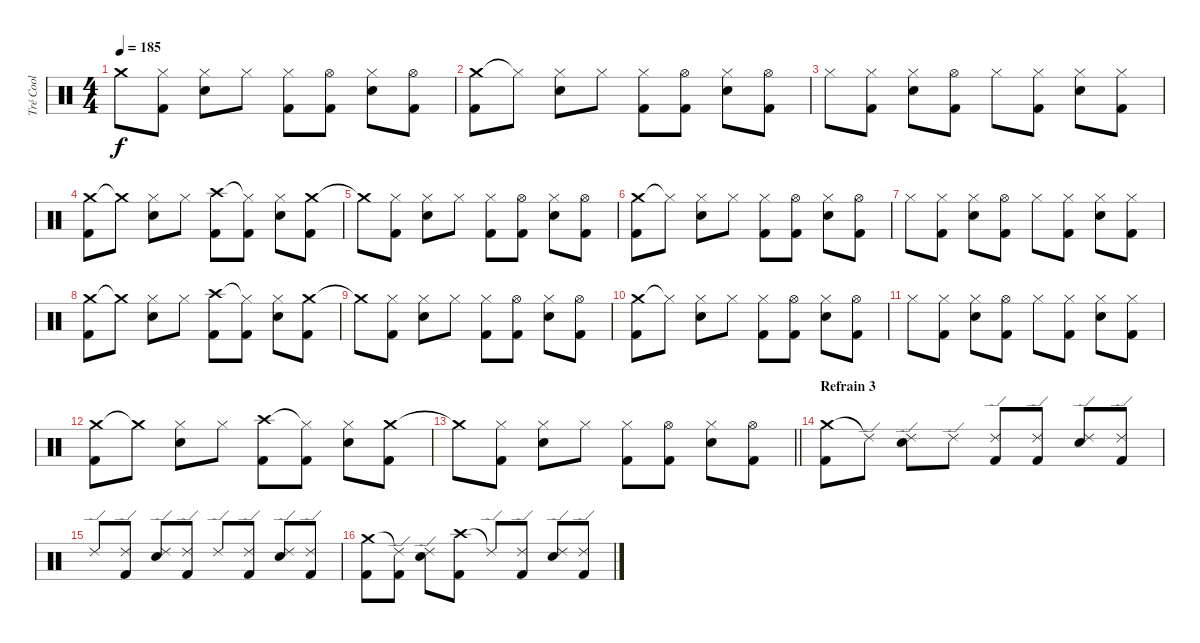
\track ("Tré Cool" "Tré Cool") {instrument percussion}
\staff {score}
\articulation defaults
\ts (4 4)
\tempo 185
\clef neutral
\ks c "Crash medium (hit)"{t}.8{dy f}
("Hi-Hat (closed)" "Kick (hit) 2").8 ("Hi-Hat (closed)" "Electric Snare (hit)").8 "Hi-Hat (closed)".8 ("Hi-Hat (closed)" "Kick (hit) 2").8 ("Hi-Hat (open)" "Kick (hit) 2").8 ("Hi-Hat (closed)" "Electric Snare (hit)").8 ("Hi-Hat (open)" "Kick (hit) 2").8 |
("Crash medium (hit)" "Kick (hit) 2").8 "Hi-Hat (closed)"{t}.8 ("Hi-Hat (closed)" "Electric Snare (hit)").8 "Hi-Hat (closed)".8 ("Hi-Hat (closed)" "Kick (hit) 2").8 ("Hi-Hat (open)" "Kick (hit) 2").8 ("Hi-Hat (closed)" "Electric Snare (hit)").8 ("Hi-Hat (open)" "Kick (hit) 2").8 |
"Hi-Hat (closed)".8 ("Hi-Hat (closed)" "Kick (hit) 2").8 ("Hi-Hat (closed)" "Electric Snare (hit)").8 ("Hi-Hat (open)" "Kick (hit) 2").8 "Hi-Hat (closed)".8 ("Hi-Hat (closed)" "Kick (hit) 2").8 ("Hi-Hat (closed)" "Electric Snare (hit)").8 ("Hi-Hat (closed)" "Kick (hit) 2").8 |
("Crash medium (hit)" "Kick (hit) 2").8 "Crash medium (hit)"{t}.8 ("Hi-Hat (closed)" "Electric Snare (hit)").8 "Hi-Hat (closed)".8 ("Crash high (hit)" "Kick (hit) 2").8 ("Hi-Hat (closed)"{t} "Kick (hit) 2").8 ("Hi-Hat (closed)" "Electric Snare (hit)").8 ("Crash medium (hit)" "Kick (hit) 2").8 |
"Crash medium (hit)"{t}.8 ("Hi-Hat (closed)" "Kick (hit) 2").8 ("Hi-Hat (closed)" "Electric Snare (hit)").8 "Hi-Hat (closed)".8 ("Hi-Hat (closed)" "Kick (hit) 2").8 ("Hi-Hat (open)" "Kick (hit) 2").8 ("Hi-Hat (closed)" "Electric Snare (hit)").8 ("Hi-Hat (open)" "Kick (hit) 2").8 |
("Crash medium (hit)" "Kick (hit) 2").8 "Hi-Hat (closed)"{t}.8 ("Hi-Hat (closed)" "Electric Snare (hit)").8 "Hi-Hat (closed)".8 ("Hi-Hat (closed)" "Kick (hit) 2").8 ("Hi-Hat (open)" "Kick (hit) 2").8 ("Hi-Hat (closed)" "Electric Snare (hit)").8 ("Hi-Hat (open)" "Kick (hit) 2").8 |
"Hi-Hat (closed)".8 ("Hi-Hat (closed)" "Kick (hit) 2").8 ("Hi-Hat (closed)" "Electric Snare (hit)").8 ("Hi-Hat (open)" "Kick (hit) 2").8 "Hi-Hat (closed)".8 ("Hi-Hat (closed)" "Kick (hit) 2").8 ("Hi-Hat (closed)" "Electric Snare (hit)").8 ("Hi-Hat (closed)" "Kick (hit) 2").8 |
("Crash medium (hit)" "Kick (hit) 2").8 "Crash medium (hit)"{t}.8 ("Hi-Hat (closed)" "Electric Snare (hit)").8 "Hi-Hat (closed)".8 ("Crash high (hit)" "Kick (hit) 2").8 ("Hi-Hat (closed)"{t} "Kick (hit) 2").8 ("Hi-Hat (closed)" "Electric Snare (hit)").8 ("Crash medium (hit)" "Kick (hit) 2").8 |
"Crash medium (hit)"{t}.8 ("Hi-Hat (closed)" "Kick (hit) 2").8 ("Hi-Hat (closed)" "Electric Snare (hit)").8 "Hi-Hat (closed)".8 ("Hi-Hat (closed)" "Kick (hit) 2").8 ("Hi-Hat (open)" "Kick (hit) 2").8 ("Hi-Hat (closed)" "Electric Snare (hit)").8 ("Hi-Hat (open)" "Kick (hit) 2").8 |
("Crash medium (hit)" "Kick (hit) 2").8 "Hi-Hat (closed)"{t}.8 ("Hi-Hat (closed)" "Electric Snare (hit)").8 "Hi-Hat (closed)".8 ("Hi-Hat (closed)" "Kick (hit) 2").8 ("Hi-Hat (open)" "Kick (hit) 2").8 ("Hi-Hat (closed)" "Electric Snare (hit)").8 ("Hi-Hat (open)" "Kick (hit) 2").8 |
"Hi-Hat (closed)".8 ("Hi-Hat (closed)" "Kick (hit) 2").8 ("Hi-Hat (closed)" "Electric Snare (hit)").8 ("Hi-Hat (open)" "Kick (hit) 2").8 "Hi-Hat (closed)".8 ("Hi-Hat (closed)" "Kick (hit) 2").8 ("Hi-Hat (closed)" "Electric Snare (hit)").8 ("Hi-Hat (closed)" "Kick (hit) 2").8 |
("Crash medium (hit)" "Kick (hit) 2").8 "Crash medium (hit)"{t}.8 ("Hi-Hat (closed)" "Electric Snare (hit)").8 "Hi-Hat (closed)".8 ("Crash high (hit)" "Kick (hit) 2").8 ("Hi-Hat (closed)"{t} "Kick (hit) 2").8 ("Hi-Hat (closed)" "Electric Snare (hit)").8 ("Crash medium (hit)" "Kick (hit) 2").8 |
\barLineRight lightlight "Crash medium (hit)"{t}.8
("Hi-Hat (closed)" "Kick (hit) 2").8 ("Hi-Hat (closed)" "Electric Snare (hit)").8 "Hi-Hat (closed)".8 ("Hi-Hat (closed)" "Kick (hit) 2").8 ("Hi-Hat (open)" "Kick (hit) 2").8 ("Hi-Hat (closed)" "Electric Snare (hit)").8 ("Hi-Hat (open)" "Kick (hit) 2").8 |
\section ("" "Refrain 3")
("Crash medium (hit)" "Kick (hit) 2").8 "Ride (edge) 2"{t}.8 ("Ride (edge) 2" "Electric Snare (hit)").8 "Ride (edge) 2".8 ("Ride (edge) 2" "Kick (hit) 2").8 ("Ride (edge) 2" "Kick (hit) 2").8 ("Ride (edge) 2" "Electric Snare (hit)").8 ("Ride (edge) 2" "Kick (hit) 2").8 |
"Ride (edge) 2".8 ("Ride (edge) 2" "Kick (hit) 2").8 ("Ride (edge) 2" "Electric Snare (hit)").8 ("Ride (edge) 2" "Kick (hit) 2").8 "Ride (edge) 2".8 ("Ride (edge) 2" "Kick (hit) 2").8 ("Ride (edge) 2" "Electric Snare (hit)").8 ("Ride (edge) 2" "Kick (hit) 2").8 |
("Crash medium (hit)" "Kick (hit) 2").8 ("Ride (edge) 2"{t} "Kick (hit) 2").8 ("Ride (edge) 2" "Electric Snare (hit)").8 ("Crash high (hit)" "Kick (hit) 2").8 "Ride (edge) 2"{t}.8 ("Ride (edge) 2" "Kick (hit) 2").8 ("Ride (edge) 2" "Electric Snare (hit)").8 ("Ride (edge) 2" "Kick (hit) 2").8
